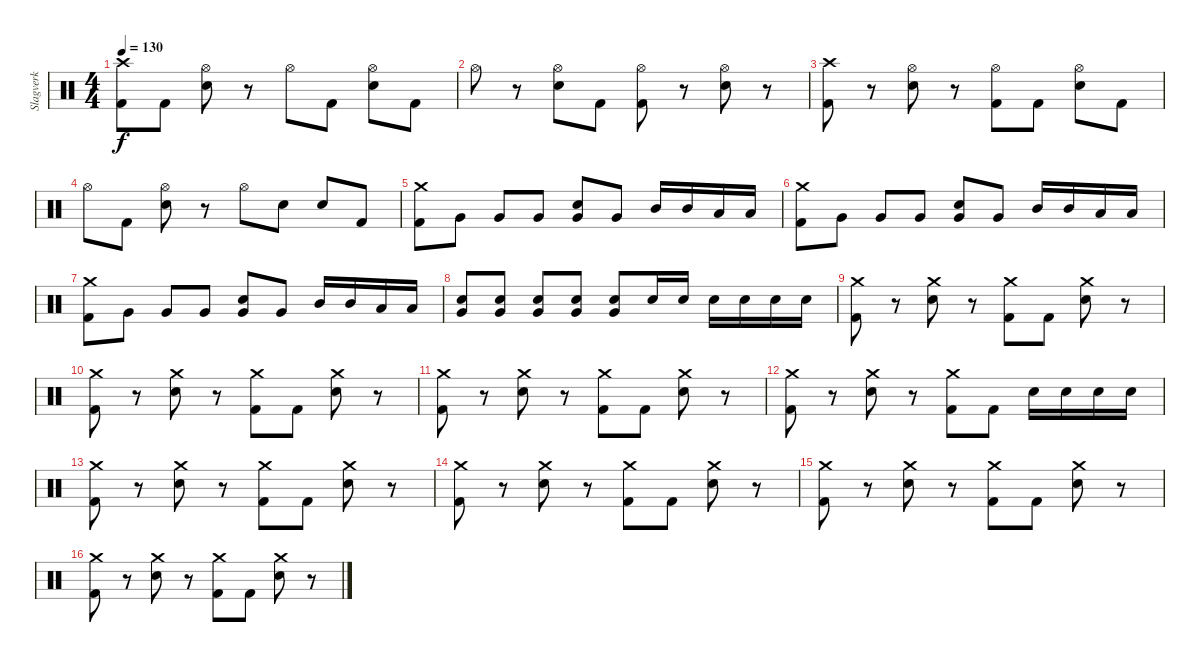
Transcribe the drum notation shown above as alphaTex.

\track ("Slagverk" "Slagverk") {instrument percussion}
\staff {score}
\articulation defaults
\ts (4 4)
\tempo 130
\clef neutral
\ks c
("Crash high (hit)" "Kick (hit) 2").8{dy f} "Kick (hit) 2".8 ("Hi-Hat (open)" "Snare (hit) 2").8 r.8 "Hi-Hat (open)".8 "Kick (hit) 2".8 ("Hi-Hat (open)" "Snare (hit) 2").8 "Kick (hit) 2".8 |
"Hi-Hat (open)".8 r.8 ("Hi-Hat (open)" "Snare (hit) 2").8 "Kick (hit) 2".8 ("Hi-Hat (open)" "Kick (hit) 2").8 r.8 ("Hi-Hat (open)" "Snare (hit) 2").8 r.8 |
("Crash high (hit)" "Kick (hit) 2").8 r.8 ("Hi-Hat (open)" "Snare (hit) 2").8 r.8 ("Hi-Hat (open)" "Kick (hit) 2").8 "Kick (hit) 2".8 ("Hi-Hat (open)" "Snare (hit) 2").8 "Kick (hit) 2".8 |
"Hi-Hat (open)".8 "Kick (hit) 2".8 ("Hi-Hat (open)" "Snare (hit) 2").8 r.8 "Hi-Hat (open)".8 "Snare (hit) 2".8 "Snare (hit) 2".8 "Kick (hit) 2".8 |
("Crash medium (hit)" "Kick (hit) 2").8 "Very Low Tom (hit)".8 "Very Low Tom (hit)".8 "Very Low Tom (hit)".8 ("Very Low Tom (hit)" "Snare (hit) 2").8 "Very Low Tom (hit)".8 "Mid Tom (hit)".16 "Mid Tom (hit)".16 "Low Tom (hit)".16 "Low Tom (hit)".16 |
("Crash medium (hit)" "Kick (hit) 2").8 "Very Low Tom (hit)".8 "Very Low Tom (hit)".8 "Very Low Tom (hit)".8 ("Very Low Tom (hit)" "Snare (hit) 2").8 "Very Low Tom (hit)".8 "Mid Tom (hit)".16 "Mid Tom (hit)".16 "Low Tom (hit)".16 "Low Tom (hit)".16 |
("Crash medium (hit)" "Kick (hit) 2").8 "Very Low Tom (hit)".8 "Very Low Tom (hit)".8 "Very Low Tom (hit)".8 ("Very Low Tom (hit)" "Snare (hit) 2").8 "Very Low Tom (hit)".8 "Mid Tom (hit)".16 "Mid Tom (hit)".16 "Low Tom (hit)".16 "Low Tom (hit)".16 |
("Very Low Tom (hit)" "Snare (hit) 2").8 ("Very Low Tom (hit)" "Snare (hit) 2").8 ("Very Low Tom (hit)" "Snare (hit) 2").8 ("Very Low Tom (hit)" "Snare (hit) 2").8 ("Very Low Tom (hit)" "Snare (hit) 2").8 "Snare (hit) 2".16 "Snare (hit) 2".16 "Snare (hit) 2".16 "Snare (hit) 2".16 "Snare (hit) 2".16 "Snare (hit) 2".16 |
("Crash medium (hit)" "Kick (hit) 2").8 r.8 ("Crash medium (hit)" "Snare (hit) 2").8 r.8 ("Crash medium (hit)" "Kick (hit) 2").8 "Kick (hit) 2".8 ("Crash medium (hit)" "Snare (hit) 2").8 r.8 |
("Crash medium (hit)" "Kick (hit) 2").8 r.8 ("Crash medium (hit)" "Snare (hit) 2").8 r.8 ("Crash medium (hit)" "Kick (hit) 2").8 "Kick (hit) 2".8 ("Crash medium (hit)" "Snare (hit) 2").8 r.8 |
("Crash medium (hit)" "Kick (hit) 2").8 r.8 ("Crash medium (hit)" "Snare (hit) 2").8 r.8 ("Crash medium (hit)" "Kick (hit) 2").8 "Kick (hit) 2".8 ("Crash medium (hit)" "Snare (hit) 2").8 r.8 |
("Crash medium (hit)" "Kick (hit) 2").8 r.8 ("Crash medium (hit)" "Snare (hit) 2").8 r.8 ("Crash medium (hit)" "Kick (hit) 2").8 "Kick (hit) 2".8 "Snare (hit) 2".16 "Snare (hit) 2".16 "Snare (hit) 2".16 "Snare (hit) 2".16 |
("Crash medium (hit)" "Kick (hit) 2").8 r.8 ("Crash medium (hit)" "Snare (hit) 2").8 r.8 ("Crash medium (hit)" "Kick (hit) 2").8 "Kick (hit) 2".8 ("Crash medium (hit)" "Snare (hit) 2").8 r.8 |
("Crash medium (hit)" "Kick (hit) 2").8 r.8 ("Crash medium (hit)" "Snare (hit) 2").8 r.8 ("Crash medium (hit)" "Kick (hit) 2").8 "Kick (hit) 2".8 ("Crash medium (hit)" "Snare (hit) 2").8 r.8 |
("Crash medium (hit)" "Kick (hit) 2").8 r.8 ("Crash medium (hit)" "Snare (hit) 2").8 r.8 ("Crash medium (hit)" "Kick (hit) 2").8 "Kick (hit) 2".8 ("Crash medium (hit)" "Snare (hit) 2").8 r.8 |
("Crash medium (hit)" "Kick (hit) 2").8 r.8 ("Crash medium (hit)" "Snare (hit) 2").8 r.8 ("Crash medium (hit)" "Kick (hit) 2").8 "Kick (hit) 2".8 ("Crash medium (hit)" "Snare (hit) 2").8 r.8
